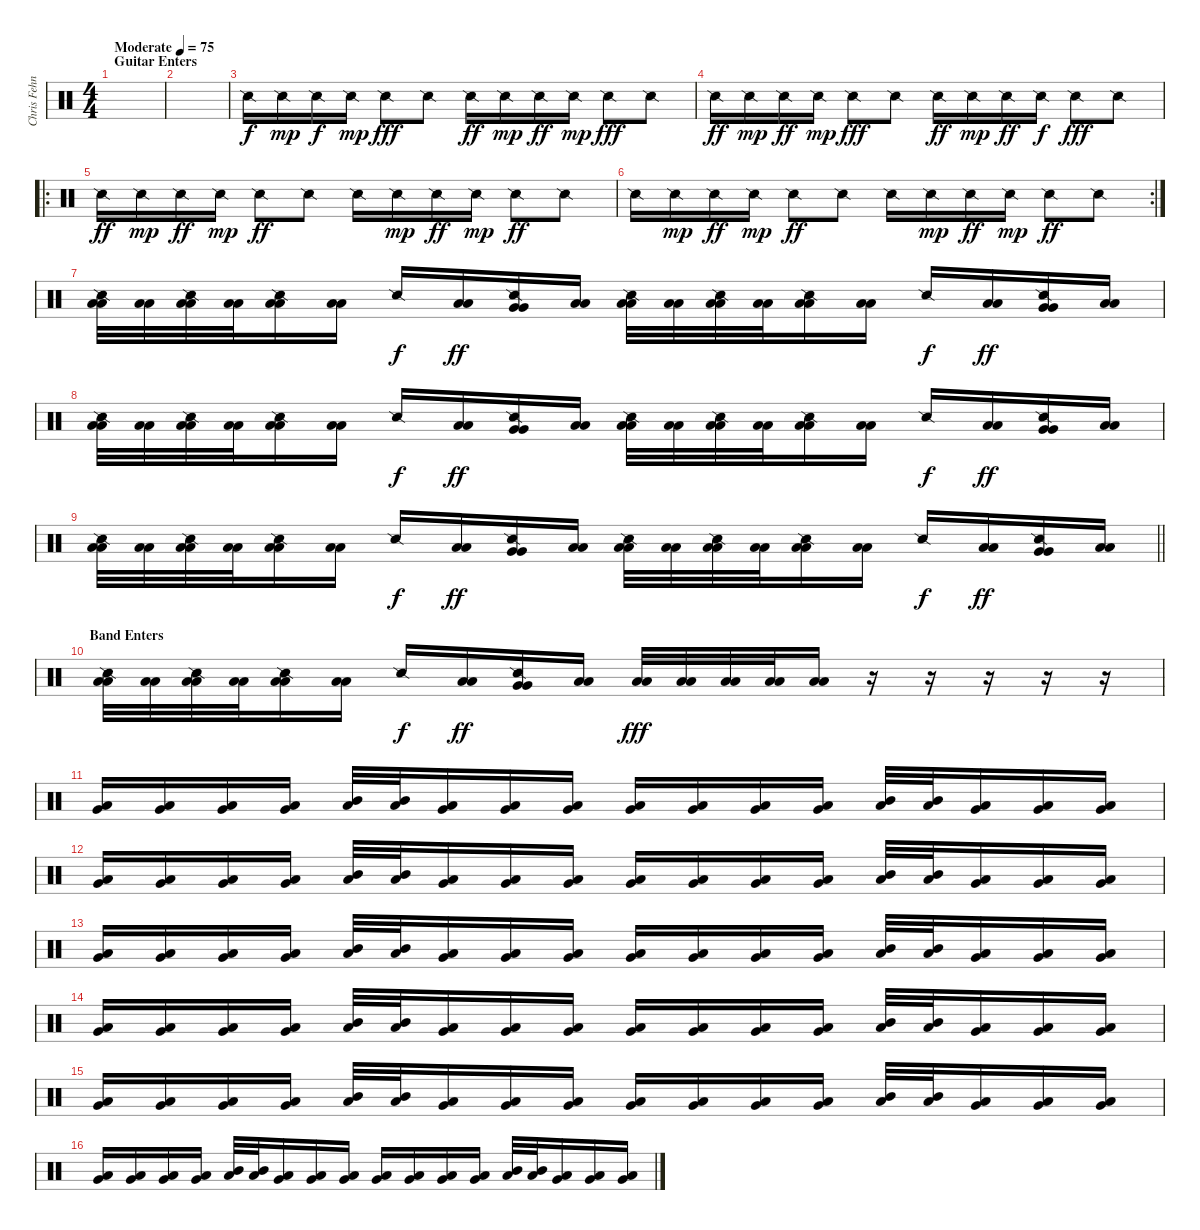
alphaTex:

\track ("Chris Fehn" "Chris Fehn") {instrument percussion}
\staff {score}
\articulation defaults
\ts (4 4)
\section ("" "Guitar Enters")
\tempo (75 "Moderate")
\clef neutral
\ks c
|
|
"Snare (side stick) 2".16 "Snare (side stick) 2".16{dy mp} "Snare (side stick) 2".16{dy f} "Snare (side stick) 2".16{dy mp} "Snare (side stick) 2".8{dy fff} "Snare (side stick) 2".8 "Snare (side stick) 2".16{dy ff} "Snare (side stick) 2".16{dy mp} "Snare (side stick) 2".16{dy ff} "Snare (side stick) 2".16{dy mp} "Snare (side stick) 2".8{dy fff} "Snare (side stick) 2".8 |
"Snare (side stick) 2".16{dy ff} "Snare (side stick) 2".16{dy mp} "Snare (side stick) 2".16{dy ff} "Snare (side stick) 2".16{dy mp} "Snare (side stick) 2".8{dy fff} "Snare (side stick) 2".8 "Snare (side stick) 2".16{dy ff} "Snare (side stick) 2".16{dy mp} "Snare (side stick) 2".16{dy ff} "Snare (side stick) 2".16{dy f} "Snare (side stick) 2".8{dy fff} "Snare (side stick) 2".8 |
\ro "Snare (side stick) 2".16{dy ff} "Snare (side stick) 2".16{dy mp} "Snare (side stick) 2".16{dy ff} "Snare (side stick) 2".16{dy mp} "Snare (side stick) 2".8{dy ff} "Snare (side stick) 2".8 "Snare (side stick) 2".16 "Snare (side stick) 2".16{dy mp} "Snare (side stick) 2".16{dy ff} "Snare (side stick) 2".16{dy mp} "Snare (side stick) 2".8{dy ff} "Snare (side stick) 2".8
|
\rc 2 "Snare (side stick) 2".16 "Snare (side stick) 2".16{dy mp} "Snare (side stick) 2".16{dy ff} "Snare (side stick) 2".16{dy mp} "Snare (side stick) 2".8{dy ff} "Snare (side stick) 2".8 "Snare (side stick) 2".16 "Snare (side stick) 2".16{dy mp} "Snare (side stick) 2".16{dy ff} "Snare (side stick) 2".16{dy mp} "Snare (side stick) 2".8{dy ff} "Snare (side stick) 2".8
|
("Snare (side stick) 2" "Low Floor Tom (hit)" "Low Floor Tom (hit)").32{bd 60} ("Low Floor Tom (hit)" "Low Floor Tom (hit)").32{bd 60} ("Snare (side stick) 2" "Low Floor Tom (hit)" "Low Floor Tom (hit)").32{bd 60} ("Low Floor Tom (hit)" "Low Floor Tom (hit)").32{bd 60} ("Snare (side stick) 2" "Low Floor Tom (hit)" "Low Floor Tom (hit)").16{bd 60} ("Low Floor Tom (hit)" "Low Floor Tom (hit)").16{bd 60} "Snare (side stick) 2".16{dy f} ("Low Tom (hit)" "Low Tom (hit)").16{bd 60 dy ff} ("Snare (side stick) 2" "Very Low Tom (hit)" "Very Low Tom (hit)").16{bd 60} ("Low Floor Tom (hit)" "Low Floor Tom (hit)").16{bd 60} ("Snare (side stick) 2" "Low Floor Tom (hit)" "Low Floor Tom (hit)").32{bd 60} ("Low Floor Tom (hit)" "Low Floor Tom (hit)").32{bd 60} ("Snare (side stick) 2" "Low Floor Tom (hit)" "Low Floor Tom (hit)").32{bd 60} ("Low Floor Tom (hit)" "Low Floor Tom (hit)").32{bd 60} ("Snare (side stick) 2" "Low Floor Tom (hit)" "Low Floor Tom (hit)").16{bd 60} ("Low Floor Tom (hit)" "Low Floor Tom (hit)").16{bd 60} "Snare (side stick) 2".16{dy f} ("Low Tom (hit)" "Low Tom (hit)").16{bd 60 dy ff} ("Snare (side stick) 2" "Very Low Tom (hit)" "Very Low Tom (hit)").16{bd 60} ("Low Floor Tom (hit)" "Low Floor Tom (hit)").16{bd 60} |
("Snare (side stick) 2" "Low Floor Tom (hit)" "Low Floor Tom (hit)").32{bd 60} ("Low Floor Tom (hit)" "Low Floor Tom (hit)").32{bd 60} ("Snare (side stick) 2" "Low Floor Tom (hit)" "Low Floor Tom (hit)").32{bd 60} ("Low Floor Tom (hit)" "Low Floor Tom (hit)").32{bd 60} ("Snare (side stick) 2" "Low Floor Tom (hit)" "Low Floor Tom (hit)").16{bd 60} ("Low Floor Tom (hit)" "Low Floor Tom (hit)").16{bd 60} "Snare (side stick) 2".16{dy f} ("Low Tom (hit)" "Low Tom (hit)").16{bd 60 dy ff} ("Snare (side stick) 2" "Very Low Tom (hit)" "Very Low Tom (hit)").16{bd 60} ("Low Floor Tom (hit)" "Low Floor Tom (hit)").16{bd 60} ("Snare (side stick) 2" "Low Floor Tom (hit)" "Low Floor Tom (hit)").32{bd 60} ("Low Floor Tom (hit)" "Low Floor Tom (hit)").32{bd 60} ("Snare (side stick) 2" "Low Floor Tom (hit)" "Low Floor Tom (hit)").32{bd 60} ("Low Floor Tom (hit)" "Low Floor Tom (hit)").32{bd 60} ("Snare (side stick) 2" "Low Floor Tom (hit)" "Low Floor Tom (hit)").16{bd 60} ("Low Floor Tom (hit)" "Low Floor Tom (hit)").16{bd 60} "Snare (side stick) 2".16{dy f} ("Low Tom (hit)" "Low Tom (hit)").16{bd 60 dy ff} ("Snare (side stick) 2" "Very Low Tom (hit)" "Very Low Tom (hit)").16{bd 60} ("Low Floor Tom (hit)" "Low Floor Tom (hit)").16{bd 60} |
\barLineRight lightlight
("Snare (side stick) 2" "Low Floor Tom (hit)" "Low Floor Tom (hit)").32{bd 60} ("Low Floor Tom (hit)" "Low Floor Tom (hit)").32{bd 60} ("Snare (side stick) 2" "Low Floor Tom (hit)" "Low Floor Tom (hit)").32{bd 60} ("Low Floor Tom (hit)" "Low Floor Tom (hit)").32{bd 60} ("Snare (side stick) 2" "Low Floor Tom (hit)" "Low Floor Tom (hit)").16{bd 60} ("Low Floor Tom (hit)" "Low Floor Tom (hit)").16{bd 60} "Snare (side stick) 2".16{dy f} ("Low Tom (hit)" "Low Tom (hit)").16{bd 60 dy ff} ("Snare (side stick) 2" "Very Low Tom (hit)" "Very Low Tom (hit)").16{bd 60} ("Low Floor Tom (hit)" "Low Floor Tom (hit)").16{bd 60} ("Snare (side stick) 2" "Low Floor Tom (hit)" "Low Floor Tom (hit)").32{bd 60} ("Low Floor Tom (hit)" "Low Floor Tom (hit)").32{bd 60} ("Snare (side stick) 2" "Low Floor Tom (hit)" "Low Floor Tom (hit)").32{bd 60} ("Low Floor Tom (hit)" "Low Floor Tom (hit)").32{bd 60} ("Snare (side stick) 2" "Low Floor Tom (hit)" "Low Floor Tom (hit)").16{bd 60} ("Low Floor Tom (hit)" "Low Floor Tom (hit)").16{bd 60} "Snare (side stick) 2".16{dy f} ("Low Tom (hit)" "Low Tom (hit)").16{bd 60 dy ff} ("Snare (side stick) 2" "Very Low Tom (hit)" "Very Low Tom (hit)").16{bd 60} ("Low Floor Tom (hit)" "Low Floor Tom (hit)").16{bd 60} |
\section ("" "Band Enters")
("Snare (side stick) 2" "Low Floor Tom (hit)" "Low Floor Tom (hit)").32{bd 60} ("Low Floor Tom (hit)" "Low Floor Tom (hit)").32{bd 60} ("Snare (side stick) 2" "Low Floor Tom (hit)" "Low Floor Tom (hit)").32{bd 60} ("Low Floor Tom (hit)" "Low Floor Tom (hit)").32{bd 60} ("Snare (side stick) 2" "Low Floor Tom (hit)" "Low Floor Tom (hit)").16{bd 60} ("Low Floor Tom (hit)" "Low Floor Tom (hit)").16{bd 60} "Snare (side stick) 2".16{dy f} ("Low Tom (hit)" "Low Tom (hit)").16{bd 60 dy ff} ("Snare (side stick) 2" "Very Low Tom (hit)" "Very Low Tom (hit)").16{bd 60} ("Low Floor Tom (hit)" "Low Floor Tom (hit)").16{bd 60} ("Low Floor Tom (hit)" "Low Floor Tom (hit)").32{bd 60 dy fff} ("Low Floor Tom (hit)" "Low Floor Tom (hit)").32{bd 60} ("Low Floor Tom (hit)" "Low Floor Tom (hit)").32{bd 60} ("Low Floor Tom (hit)" "Low Floor Tom (hit)").32{bd 60} ("Low Floor Tom (hit)" "Low Floor Tom (hit)").16{bd 60} r.16 r.16 r.16 r.16 r.16 |
("Very Low Tom (hit)" "Low Floor Tom (hit)").16{bd 60} ("Very Low Tom (hit)" "Low Floor Tom (hit)").16{bd 60} ("Very Low Tom (hit)" "Low Floor Tom (hit)").16{bd 60} ("Very Low Tom (hit)" "Low Floor Tom (hit)").16{bd 60} ("Mid Tom (hit)" "Low Tom (hit)").32{bd 60} ("Mid Tom (hit)" "Low Tom (hit)").32{bd 60} ("Low Tom (hit)" "Very Low Tom (hit)").16{bd 60} ("Low Tom (hit)" "Very Low Tom (hit)").16{bd 60} ("Very Low Tom (hit)" "Low Floor Tom (hit)").16{bd 60} ("Very Low Tom (hit)" "Low Floor Tom (hit)").16{bd 60} ("Very Low Tom (hit)" "Low Floor Tom (hit)").16{bd 60} ("Very Low Tom (hit)" "Low Floor Tom (hit)").16{bd 60} ("Very Low Tom (hit)" "Low Floor Tom (hit)").16{bd 60} ("Mid Tom (hit)" "Low Tom (hit)").32{bd 60} ("Mid Tom (hit)" "Low Tom (hit)").32{bd 60} ("Low Tom (hit)" "Very Low Tom (hit)").16{bd 60} ("Low Tom (hit)" "Very Low Tom (hit)").16{bd 60} ("Very Low Tom (hit)" "Low Floor Tom (hit)").16{bd 60} |
("Very Low Tom (hit)" "Low Floor Tom (hit)").16{bd 60} ("Very Low Tom (hit)" "Low Floor Tom (hit)").16{bd 60} ("Very Low Tom (hit)" "Low Floor Tom (hit)").16{bd 60} ("Very Low Tom (hit)" "Low Floor Tom (hit)").16{bd 60} ("Mid Tom (hit)" "Low Tom (hit)").32{bd 60} ("Mid Tom (hit)" "Low Tom (hit)").32{bd 60} ("Low Tom (hit)" "Very Low Tom (hit)").16{bd 60} ("Low Tom (hit)" "Very Low Tom (hit)").16{bd 60} ("Very Low Tom (hit)" "Low Floor Tom (hit)").16{bd 60} ("Very Low Tom (hit)" "Low Floor Tom (hit)").16{bd 60} ("Very Low Tom (hit)" "Low Floor Tom (hit)").16{bd 60} ("Very Low Tom (hit)" "Low Floor Tom (hit)").16{bd 60} ("Very Low Tom (hit)" "Low Floor Tom (hit)").16{bd 60} ("Mid Tom (hit)" "Low Tom (hit)").32{bd 60} ("Mid Tom (hit)" "Low Tom (hit)").32{bd 60} ("Low Tom (hit)" "Very Low Tom (hit)").16{bd 60} ("Low Tom (hit)" "Very Low Tom (hit)").16{bd 60} ("Very Low Tom (hit)" "Low Floor Tom (hit)").16{bd 60} |
("Very Low Tom (hit)" "Low Floor Tom (hit)").16{bd 60} ("Very Low Tom (hit)" "Low Floor Tom (hit)").16{bd 60} ("Very Low Tom (hit)" "Low Floor Tom (hit)").16{bd 60} ("Very Low Tom (hit)" "Low Floor Tom (hit)").16{bd 60} ("Mid Tom (hit)" "Low Tom (hit)").32{bd 60} ("Mid Tom (hit)" "Low Tom (hit)").32{bd 60} ("Low Tom (hit)" "Very Low Tom (hit)").16{bd 60} ("Low Tom (hit)" "Very Low Tom (hit)").16{bd 60} ("Very Low Tom (hit)" "Low Floor Tom (hit)").16{bd 60} ("Very Low Tom (hit)" "Low Floor Tom (hit)").16{bd 60} ("Very Low Tom (hit)" "Low Floor Tom (hit)").16{bd 60} ("Very Low Tom (hit)" "Low Floor Tom (hit)").16{bd 60} ("Very Low Tom (hit)" "Low Floor Tom (hit)").16{bd 60} ("Mid Tom (hit)" "Low Tom (hit)").32{bd 60} ("Mid Tom (hit)" "Low Tom (hit)").32{bd 60} ("Low Tom (hit)" "Very Low Tom (hit)").16{bd 60} ("Low Tom (hit)" "Very Low Tom (hit)").16{bd 60} ("Very Low Tom (hit)" "Low Floor Tom (hit)").16{bd 60} |
("Very Low Tom (hit)" "Low Floor Tom (hit)").16{bd 60} ("Very Low Tom (hit)" "Low Floor Tom (hit)").16{bd 60} ("Very Low Tom (hit)" "Low Floor Tom (hit)").16{bd 60} ("Very Low Tom (hit)" "Low Floor Tom (hit)").16{bd 60} ("Mid Tom (hit)" "Low Tom (hit)").32{bd 60} ("Mid Tom (hit)" "Low Tom (hit)").32{bd 60} ("Low Tom (hit)" "Very Low Tom (hit)").16{bd 60} ("Low Tom (hit)" "Very Low Tom (hit)").16{bd 60} ("Very Low Tom (hit)" "Low Floor Tom (hit)").16{bd 60} ("Very Low Tom (hit)" "Low Floor Tom (hit)").16{bd 60} ("Very Low Tom (hit)" "Low Floor Tom (hit)").16{bd 60} ("Very Low Tom (hit)" "Low Floor Tom (hit)").16{bd 60} ("Very Low Tom (hit)" "Low Floor Tom (hit)").16{bd 60} ("Mid Tom (hit)" "Low Tom (hit)").32{bd 60} ("Mid Tom (hit)" "Low Tom (hit)").32{bd 60} ("Low Tom (hit)" "Very Low Tom (hit)").16{bd 60} ("Low Tom (hit)" "Very Low Tom (hit)").16{bd 60} ("Very Low Tom (hit)" "Low Floor Tom (hit)").16{bd 60} |
("Very Low Tom (hit)" "Low Floor Tom (hit)").16{bd 60} ("Very Low Tom (hit)" "Low Floor Tom (hit)").16{bd 60} ("Very Low Tom (hit)" "Low Floor Tom (hit)").16{bd 60} ("Very Low Tom (hit)" "Low Floor Tom (hit)").16{bd 60} ("Mid Tom (hit)" "Low Tom (hit)").32{bd 60} ("Mid Tom (hit)" "Low Tom (hit)").32{bd 60} ("Low Tom (hit)" "Very Low Tom (hit)").16{bd 60} ("Low Tom (hit)" "Very Low Tom (hit)").16{bd 60} ("Very Low Tom (hit)" "Low Floor Tom (hit)").16{bd 60} ("Very Low Tom (hit)" "Low Floor Tom (hit)").16{bd 60} ("Very Low Tom (hit)" "Low Floor Tom (hit)").16{bd 60} ("Very Low Tom (hit)" "Low Floor Tom (hit)").16{bd 60} ("Very Low Tom (hit)" "Low Floor Tom (hit)").16{bd 60} ("Mid Tom (hit)" "Low Tom (hit)").32{bd 60} ("Mid Tom (hit)" "Low Tom (hit)").32{bd 60} ("Low Tom (hit)" "Very Low Tom (hit)").16{bd 60} ("Low Tom (hit)" "Very Low Tom (hit)").16{bd 60} ("Very Low Tom (hit)" "Low Floor Tom (hit)").16{bd 60} |
("Very Low Tom (hit)" "Low Floor Tom (hit)").16{bd 60} ("Very Low Tom (hit)" "Low Floor Tom (hit)").16{bd 60} ("Very Low Tom (hit)" "Low Floor Tom (hit)").16{bd 60} ("Very Low Tom (hit)" "Low Floor Tom (hit)").16{bd 60} ("Mid Tom (hit)" "Low Tom (hit)").32{bd 60} ("Mid Tom (hit)" "Low Tom (hit)").32{bd 60} ("Low Tom (hit)" "Very Low Tom (hit)").16{bd 60} ("Low Tom (hit)" "Very Low Tom (hit)").16{bd 60} ("Very Low Tom (hit)" "Low Floor Tom (hit)").16{bd 60} ("Very Low Tom (hit)" "Low Floor Tom (hit)").16{bd 60} ("Very Low Tom (hit)" "Low Floor Tom (hit)").16{bd 60} ("Very Low Tom (hit)" "Low Floor Tom (hit)").16{bd 60} ("Very Low Tom (hit)" "Low Floor Tom (hit)").16{bd 60} ("Mid Tom (hit)" "Low Tom (hit)").32{bd 60} ("Mid Tom (hit)" "Low Tom (hit)").32{bd 60} ("Low Tom (hit)" "Very Low Tom (hit)").16{bd 60} ("Low Tom (hit)" "Very Low Tom (hit)").16{bd 60} ("Very Low Tom (hit)" "Low Floor Tom (hit)").16{bd 60}
